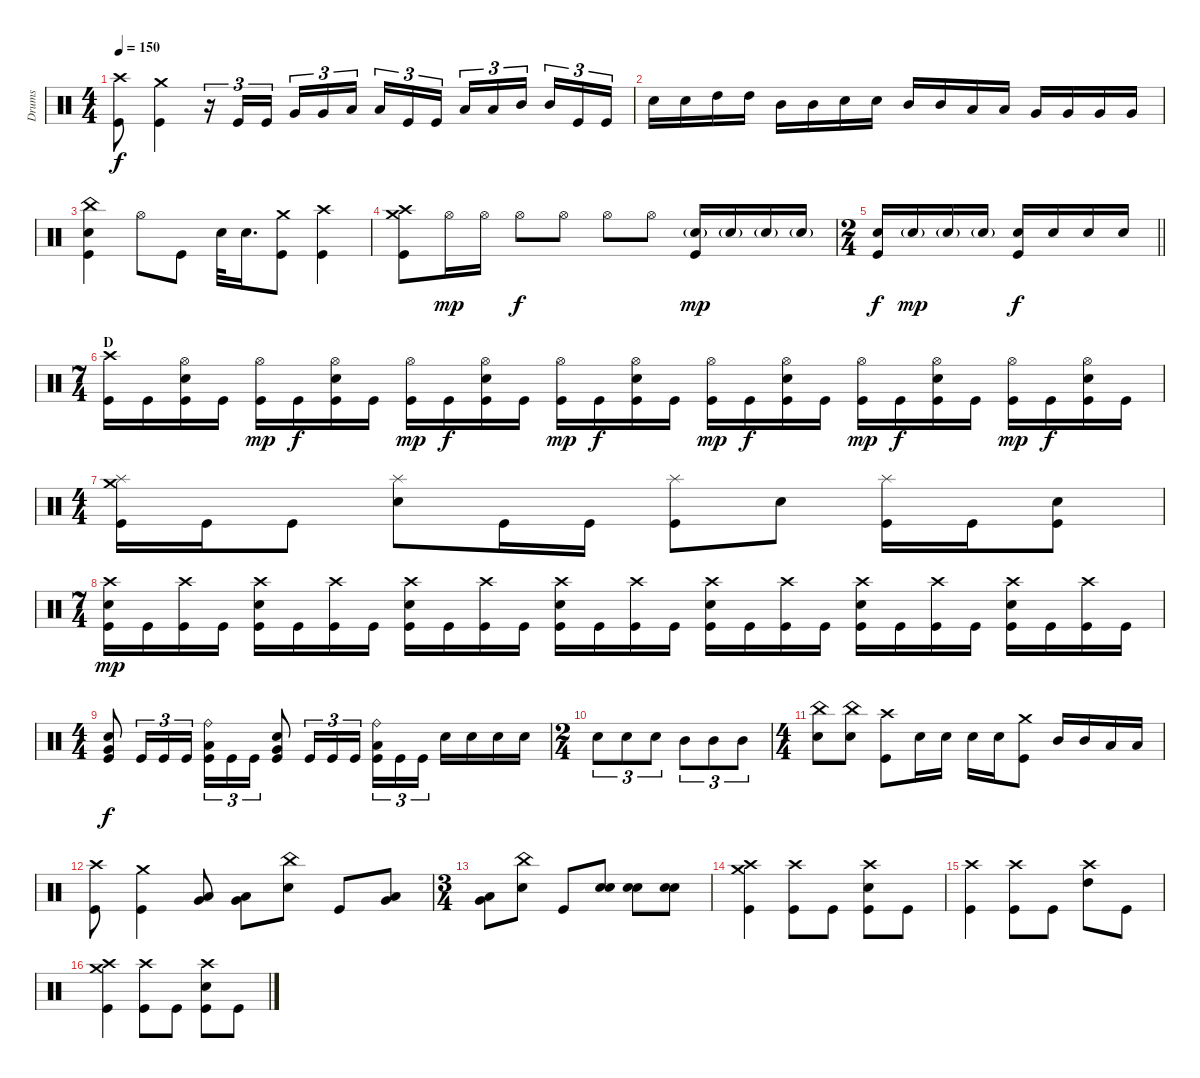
\track ("Drums" "Drums") {instrument percussion}
\staff {score}
\articulation defaults
\ts (4 4)
\tempo 150
\clef neutral
\ks c
("Crash high (hit)" "Kick (hit)").8{dy f} ("Crash medium (hit)" "Kick (hit)").4 r.16{tu (3 2)} "Kick (hit)".16{tu (3 2)} "Kick (hit)".16{tu (3 2)} "Very Low Tom (hit)".16{tu (3 2)} "Very Low Tom (hit)".16{tu (3 2)} "Low Tom (hit)".16{tu (3 2)} "Low Tom (hit)".16{tu (3 2)} "Kick (hit)".16{tu (3 2)} "Kick (hit)".16{tu (3 2)} "Low Tom (hit)".16{tu (3 2)} "Low Tom (hit)".16{tu (3 2)} "Mid Tom (hit)".16{tu (3 2)} "Mid Tom (hit)".16{tu (3 2)} "Kick (hit)".16{tu (3 2)} "Kick (hit)".16{tu (3 2)} |
"Electric Snare (hit)".16 "Electric Snare (hit)".16 "High Tom (hit)".16 "High Tom (hit)".16 "Mid Tom (hit)".16 "Mid Tom (hit)".16 "Electric Snare (hit)".16 "Electric Snare (hit)".16 "Mid Tom (hit)".16 "Mid Tom (hit)".16 "Low Tom (hit)".16 "Low Tom (hit)".16 "Very Low Tom (hit)".16 "Very Low Tom (hit)".16 "Very Low Tom (hit)".16 "Very Low Tom (hit)".16 |
("China (hit)" "Electric Snare (hit)" "Kick (hit)").4 "Hi-Hat (open)".8 "Kick (hit)".8 "Electric Snare (hit)".32 "Electric Snare (hit)".16{d} ("Crash medium (hit)" "Kick (hit)").8 ("Crash high (hit)" "Kick (hit)").4 |
("Crash medium (hit)" "Crash high (hit)" "Kick (hit)").8 "Hi-Hat (open)".16{dy mp} "Hi-Hat (open)".16 "Hi-Hat (open)".8{dy f} "Hi-Hat (open)".8 "Hi-Hat (open)".8 "Hi-Hat (open)".8 ("Electric Snare (hit)"{g} "Kick (hit)").16{dy mp} "Electric Snare (hit)"{g}.16 "Electric Snare (hit)"{g}.16 "Electric Snare (hit)"{g}.16 |
\ts (2 4)
\barLineRight lightlight
("Electric Snare (hit)" "Kick (hit)").16{dy f} "Electric Snare (hit)"{g}.16{dy mp} "Electric Snare (hit)"{g}.16 "Electric Snare (hit)"{g}.16 ("Electric Snare (hit)" "Kick (hit)").16{dy f} "Electric Snare (hit)".16 "Electric Snare (hit)".16 "Electric Snare (hit)".16 |
\ts (7 4)
\section ("" "D")
("Crash high (hit)" "Kick (hit)").16 "Kick (hit)".16 ("Hi-Hat (open)" "Electric Snare (hit)" "Kick (hit)").16 "Kick (hit)".16 ("Hi-Hat (open)" "Kick (hit)").16{dy mp} "Kick (hit)".16{dy f} ("Hi-Hat (open)" "Electric Snare (hit)" "Kick (hit)").16 "Kick (hit)".16 ("Hi-Hat (open)" "Kick (hit)").16{dy mp} "Kick (hit)".16{dy f} ("Hi-Hat (open)" "Electric Snare (hit)" "Kick (hit)").16 "Kick (hit)".16 ("Hi-Hat (open)" "Kick (hit)").16{dy mp} "Kick (hit)".16{dy f} ("Hi-Hat (open)" "Electric Snare (hit)" "Kick (hit)").16 "Kick (hit)".16 ("Hi-Hat (open)" "Kick (hit)").16{dy mp} "Kick (hit)".16{dy f} ("Hi-Hat (open)" "Electric Snare (hit)" "Kick (hit)").16 "Kick (hit)".16 ("Hi-Hat (open)" "Kick (hit)").16{dy mp} "Kick (hit)".16{dy f} ("Hi-Hat (open)" "Electric Snare (hit)" "Kick (hit)").16 "Kick (hit)".16 ("Hi-Hat (open)" "Kick (hit)").16{dy mp} "Kick (hit)".16{dy f} ("Hi-Hat (open)" "Electric Snare (hit)" "Kick (hit)").16 "Kick (hit)".16 |
\ts (4 4)
("Crash medium (hit)" "Splash (hit)" "Kick (hit)").16 "Kick (hit)".16 "Kick (hit)".8 ("Splash (hit)" "Electric Snare (hit)").8 "Kick (hit)".16 "Kick (hit)".16 ("Splash (hit)" "Kick (hit)").8 "Electric Snare (hit)".8 ("Splash (hit)" "Kick (hit)").16 "Kick (hit)".16 ("Electric Snare (hit)" "Kick (hit)").8 |
\ts (7 4)
("Crash high (hit)" "Electric Snare (hit)" "Kick (hit)").16{dy mp} "Kick (hit)".16 ("Crash high (hit)" "Kick (hit)").16 "Kick (hit)".16 ("Crash high (hit)" "Electric Snare (hit)" "Kick (hit)").16 "Kick (hit)".16 ("Crash high (hit)" "Kick (hit)").16 "Kick (hit)".16 ("Crash high (hit)" "Electric Snare (hit)" "Kick (hit)").16 "Kick (hit)".16 ("Crash high (hit)" "Kick (hit)").16 "Kick (hit)".16 ("Crash high (hit)" "Electric Snare (hit)" "Kick (hit)").16 "Kick (hit)".16 ("Crash high (hit)" "Kick (hit)").16 "Kick (hit)".16 ("Crash high (hit)" "Electric Snare (hit)" "Kick (hit)").16 "Kick (hit)".16 ("Crash high (hit)" "Kick (hit)").16 "Kick (hit)".16 ("Crash high (hit)" "Electric Snare (hit)" "Kick (hit)").16 "Kick (hit)".16 ("Crash high (hit)" "Kick (hit)").16 "Kick (hit)".16 ("Crash high (hit)" "Electric Snare (hit)" "Kick (hit)").16 "Kick (hit)".16 ("Crash high (hit)" "Kick (hit)").16 "Kick (hit)".16 |
\ts (4 4)
("Very Low Tom (hit)" "Electric Snare (hit)" "Kick (hit)").8{dy f} "Kick (hit)".16{tu (3 2)} "Kick (hit)".16{tu (3 2)} "Kick (hit)".16{tu (3 2)} ("Ride (bell)" "Low Tom (hit)" "Kick (hit)").16{tu (3 2)} "Kick (hit)".16{tu (3 2)} "Kick (hit)".16{tu (3 2)} ("Very Low Tom (hit)" "Electric Snare (hit)" "Kick (hit)").8 "Kick (hit)".16{tu (3 2)} "Kick (hit)".16{tu (3 2)} "Kick (hit)".16{tu (3 2)} ("Ride (bell)" "Low Tom (hit)" "Kick (hit)").16{tu (3 2)} "Kick (hit)".16{tu (3 2)} "Kick (hit)".16{tu (3 2)} "Electric Snare (hit)".16 "Electric Snare (hit)".16 "Electric Snare (hit)".16 "Electric Snare (hit)".16 |
\ts (2 4)
"Electric Snare (hit)".8{tu (3 2)} "Electric Snare (hit)".8{tu (3 2)} "Electric Snare (hit)".8{tu (3 2)} "Mid Tom (hit)".8{tu (3 2)} "Mid Tom (hit)".8{tu (3 2)} "Mid Tom (hit)".8{tu (3 2)} |
\ts (4 4)
("China (hit)" "Electric Snare (hit)").8 ("China (hit)" "Electric Snare (hit)").8 ("Crash high (hit)" "Kick (hit)").8 "Electric Snare (hit)".16 "Electric Snare (hit)".16 "Electric Snare (hit)".16 "Electric Snare (hit)".16 ("Crash medium (hit)" "Kick (hit)").8 "Mid Tom (hit)".16 "Mid Tom (hit)".16 "Low Tom (hit)".16 "Low Tom (hit)".16 |
("Crash high (hit)" "Kick (hit)").8 ("Crash medium (hit)" "Kick (hit)").4 ("Low Tom (hit)" "Very Low Tom (hit)").8 ("Low Tom (hit)" "Very Low Tom (hit)").8 ("China (hit)" "Electric Snare (hit)").8 "Kick (hit)".8 ("Low Tom (hit)" "Very Low Tom (hit)").8 |
\ts (3 4)
("Low Tom (hit)" "Very Low Tom (hit)").8 ("China (hit)" "Electric Snare (hit)").8 "Kick (hit)".8 ("Electric Snare (hit)" "Electric Snare (hit)").8 ("Electric Snare (hit)" "Electric Snare (hit)").8 ("Electric Snare (hit)" "Electric Snare (hit)").8 |
("Crash medium (hit)" "Crash high (hit)" "Kick (hit)").4 ("Crash high (hit)" "Kick (hit)").8 "Kick (hit)".8 ("Crash high (hit)" "Electric Snare (hit)" "Kick (hit)").8 "Kick (hit)".8 |
("Crash high (hit)" "Kick (hit)").4 ("Crash high (hit)" "Kick (hit)").8 "Kick (hit)".8 ("Crash high (hit)" "High Tom (hit)").8 "Kick (hit)".8 |
("Crash medium (hit)" "Crash high (hit)" "Kick (hit)").4 ("Crash high (hit)" "Kick (hit)").8 "Kick (hit)".8 ("Crash high (hit)" "Electric Snare (hit)" "Kick (hit)").8 "Kick (hit)".8
